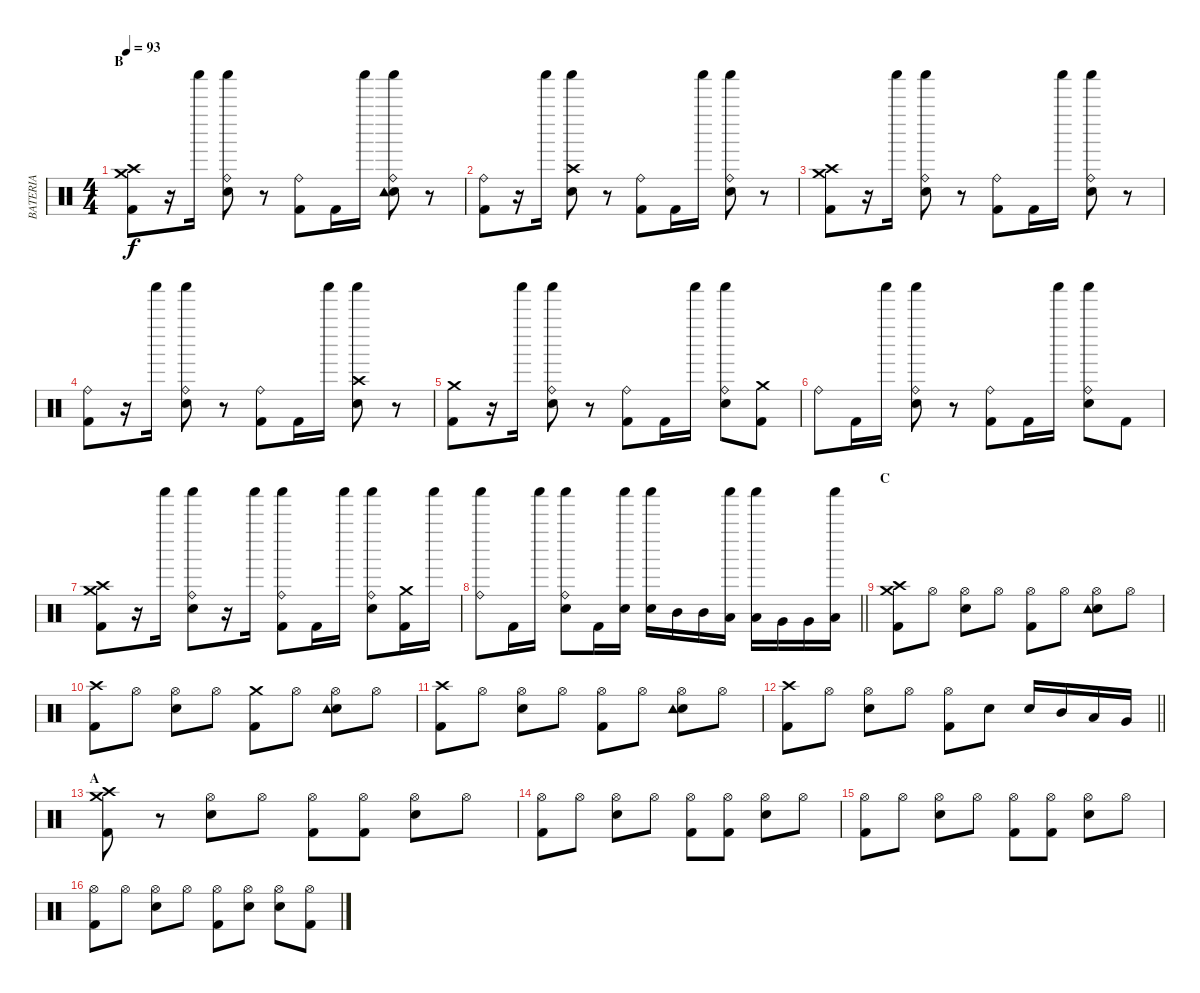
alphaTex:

\track ("BATERIA" "BATERIA") {instrument percussion}
\staff {score}
\articulation defaults
\ts (4 4)
\section ("" "B")
\tempo 93
\clef neutral
\ks c
("Kick (hit) 2" "Crash high (hit)" "Crash medium (hit)").8{dy f} r.16 "Shaker (hit)".16 ("Electric Snare (hit)" "Ride (bell)" "Shaker (hit)").8 r.8 ("Kick (hit) 2" "Ride (bell)").8 "Kick (hit) 2".16 "Shaker (hit)".16 ("Electric Snare (hit)" "Ride (bell)" "Shaker (hit)" "Tambourine (hit)").8 r.8 |
("Kick (hit) 2" "Ride (bell)").8 r.16 "Shaker (hit)".16 ("Electric Snare (hit)" "Shaker (hit)" "Crash high (hit)").8 r.8 ("Kick (hit) 2" "Ride (bell)").8 "Kick (hit) 2".16 "Shaker (hit)".16 ("Electric Snare (hit)" "Ride (bell)" "Shaker (hit)").8 r.8 |
("Kick (hit) 2" "Crash high (hit)" "Crash medium (hit)").8 r.16 "Shaker (hit)".16 ("Electric Snare (hit)" "Ride (bell)" "Shaker (hit)").8 r.8 ("Kick (hit) 2" "Ride (bell)").8 "Kick (hit) 2".16 "Shaker (hit)".16 ("Electric Snare (hit)" "Ride (bell)" "Shaker (hit)").8 r.8 |
("Kick (hit) 2" "Ride (bell)").8 r.16 "Shaker (hit)".16 ("Electric Snare (hit)" "Ride (bell)" "Shaker (hit)").8 r.8 ("Kick (hit) 2" "Ride (bell)").8 "Kick (hit) 2".16 "Shaker (hit)".16 ("Electric Snare (hit)" "Shaker (hit)" "Crash high (hit)").8 r.8 |
("Kick (hit) 2" "Crash medium (hit)").8 r.16 "Shaker (hit)".16 ("Electric Snare (hit)" "Ride (bell)" "Shaker (hit)").8 r.8 ("Kick (hit) 2" "Ride (bell)").8 "Kick (hit) 2".16 "Shaker (hit)".16 ("Electric Snare (hit)" "Ride (bell)" "Shaker (hit)").8 ("Kick (hit) 2" "Crash medium (hit)").8 |
"Ride (bell)".8 "Kick (hit) 2".16 "Shaker (hit)".16 ("Electric Snare (hit)" "Ride (bell)" "Shaker (hit)").8 r.8 ("Kick (hit) 2" "Ride (bell)").8 "Kick (hit) 2".16 "Shaker (hit)".16 ("Electric Snare (hit)" "Ride (bell)" "Shaker (hit)").8 "Kick (hit) 2".8 |
("Kick (hit) 2" "Crash high (hit)" "Crash medium (hit)").8 r.16 "Shaker (hit)".16 ("Electric Snare (hit)" "Ride (bell)" "Shaker (hit)").8 r.16 "Shaker (hit)".16 ("Kick (hit) 2" "Ride (bell)" "Shaker (hit)").8 "Kick (hit) 2".16 "Shaker (hit)".16 ("Electric Snare (hit)" "Ride (bell)" "Shaker (hit)").8 ("Kick (hit) 2" "Crash medium (hit)").16 "Shaker (hit)".16 |
\barLineRight lightlight
("Ride (bell)" "Shaker (hit)").8 "Kick (hit) 2".16 "Shaker (hit)".16 ("Electric Snare (hit)" "Ride (bell)" "Shaker (hit)").8 "Kick (hit) 2".16 ("Electric Snare (hit)" "Shaker (hit)").16 ("Electric Snare (hit)" "Shaker (hit)").16 "Mid Tom (hit)".16 "Mid Tom (hit)".16 ("Low Tom (hit)" "Shaker (hit)").16 ("Low Tom (hit)" "Shaker (hit)").16 "Very Low Tom (hit)".16 "Very Low Tom (hit)".16 ("Low Floor Tom (hit)" "Shaker (hit)").16 |
\section ("" "C")
("Kick (hit) 2" "Crash high (hit)" "Crash medium (hit)").8 "Hi-Hat (open)".8 ("Electric Snare (hit)" "Hi-Hat (open)").8 "Hi-Hat (open)".8 ("Kick (hit) 2" "Hi-Hat (open)").8 "Hi-Hat (open)".8 ("Electric Snare (hit)" "Hi-Hat (open)" "Tambourine (hit)").8 "Hi-Hat (open)".8 |
("Kick (hit) 2" "Crash high (hit)").8 "Hi-Hat (open)".8 ("Electric Snare (hit)" "Hi-Hat (open)").8 "Hi-Hat (open)".8 ("Kick (hit) 2" "Crash medium (hit)").8 "Hi-Hat (open)".8 ("Electric Snare (hit)" "Hi-Hat (open)" "Tambourine (hit)").8 "Hi-Hat (open)".8 |
("Kick (hit) 2" "Crash high (hit)").8 "Hi-Hat (open)".8 ("Electric Snare (hit)" "Hi-Hat (open)").8 "Hi-Hat (open)".8 ("Kick (hit) 2" "Hi-Hat (open)").8 "Hi-Hat (open)".8 ("Electric Snare (hit)" "Hi-Hat (open)" "Tambourine (hit)").8 "Hi-Hat (open)".8 |
\barLineRight lightlight
("Kick (hit) 2" "Crash high (hit)").8 "Hi-Hat (open)".8 ("Electric Snare (hit)" "Hi-Hat (open)").8 "Hi-Hat (open)".8 ("Kick (hit) 2" "Hi-Hat (open)").8 "Electric Snare (hit)".8 "Electric Snare (hit)".16 "Mid Tom (hit)".16 "Low Tom (hit)".16 "Very Low Tom (hit)".16 |
\section ("" "A")
("Kick (hit) 2" "Crash medium (hit)" "Crash high (hit)").8 r.8 ("Electric Snare (hit)" "Hi-Hat (open)").8 "Hi-Hat (open)".8 ("Kick (hit) 2" "Hi-Hat (open)").8 ("Kick (hit) 2" "Hi-Hat (open)").8 ("Electric Snare (hit)" "Hi-Hat (open)").8 "Hi-Hat (open)".8 |
("Kick (hit) 2" "Hi-Hat (open)").8 "Hi-Hat (open)".8 ("Electric Snare (hit)" "Hi-Hat (open)").8 "Hi-Hat (open)".8 ("Kick (hit) 2" "Hi-Hat (open)").8 ("Kick (hit) 2" "Hi-Hat (open)").8 ("Electric Snare (hit)" "Hi-Hat (open)").8 "Hi-Hat (open)".8 |
("Kick (hit) 2" "Hi-Hat (open)").8 "Hi-Hat (open)".8 ("Electric Snare (hit)" "Hi-Hat (open)").8 "Hi-Hat (open)".8 ("Kick (hit) 2" "Hi-Hat (open)").8 ("Kick (hit) 2" "Hi-Hat (open)").8 ("Electric Snare (hit)" "Hi-Hat (open)").8 "Hi-Hat (open)".8 |
("Kick (hit) 2" "Hi-Hat (open)").8 "Hi-Hat (open)".8 ("Electric Snare (hit)" "Hi-Hat (open)").8 "Hi-Hat (open)".8 ("Kick (hit) 2" "Hi-Hat (open)").8 ("Electric Snare (hit)" "Hi-Hat (open)").8 ("Electric Snare (hit)" "Hi-Hat (open)").8 ("Kick (hit) 2" "Hi-Hat (open)").8
